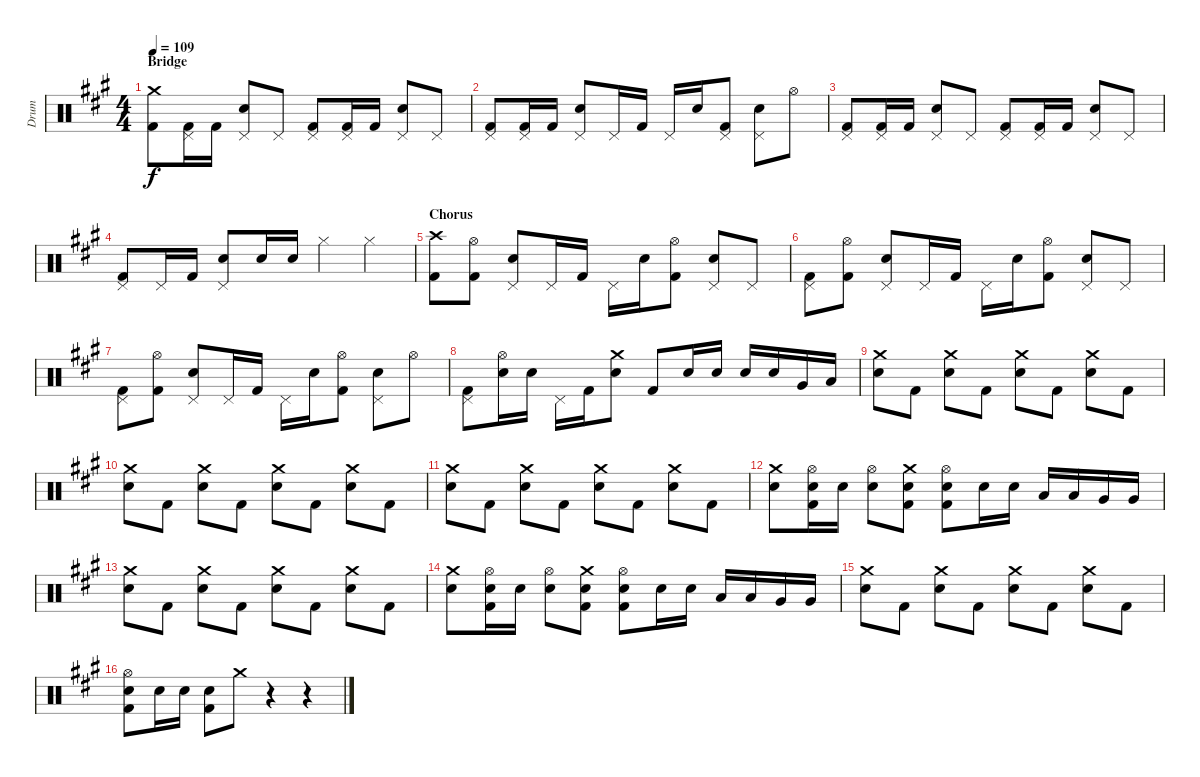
\track ("Drum" "Drum") {instrument percussion}
\staff {score}
\articulation defaults
\ts (4 4)
\section ("" "Bridge")
\tempo 109
\clef neutral
\ks f#minor
("Crash medium (hit)" "Kick (hit) 2").8{dy f} ("Pedal Hi-Hat (hit)" "Kick (hit) 2").16 "Kick (hit) 2".16 ("Pedal Hi-Hat (hit)" "Electric Snare (hit)").8 "Pedal Hi-Hat (hit)".8 ("Pedal Hi-Hat (hit)" "Kick (hit) 2").8 ("Pedal Hi-Hat (hit)" "Kick (hit) 2").16 "Kick (hit) 2".16 ("Pedal Hi-Hat (hit)" "Electric Snare (hit)").8 "Pedal Hi-Hat (hit)".8 |
("Pedal Hi-Hat (hit)" "Kick (hit) 2").8 ("Pedal Hi-Hat (hit)" "Kick (hit) 2").16 "Kick (hit) 2".16 ("Pedal Hi-Hat (hit)" "Electric Snare (hit)").8 "Pedal Hi-Hat (hit)".16 "Kick (hit) 2".16 "Pedal Hi-Hat (hit)".16 "Electric Snare (hit)".16 ("Pedal Hi-Hat (hit)" "Kick (hit) 2").8 ("Pedal Hi-Hat (hit)" "Electric Snare (hit)").8 "Hi-Hat (open)".8 |
("Pedal Hi-Hat (hit)" "Kick (hit) 2").8 ("Pedal Hi-Hat (hit)" "Kick (hit) 2").16 "Kick (hit) 2".16 ("Pedal Hi-Hat (hit)" "Electric Snare (hit)").8 "Pedal Hi-Hat (hit)".8 ("Pedal Hi-Hat (hit)" "Kick (hit) 2").8 ("Pedal Hi-Hat (hit)" "Kick (hit) 2").16 "Kick (hit) 2".16 ("Pedal Hi-Hat (hit)" "Electric Snare (hit)").8 "Pedal Hi-Hat (hit)".8 |
("Pedal Hi-Hat (hit)" "Kick (hit) 2").8 "Pedal Hi-Hat (hit)".16 "Kick (hit) 2".16 ("Pedal Hi-Hat (hit)" "Electric Snare (hit)").8 "Electric Snare (hit)".16 "Electric Snare (hit)".16 "Hi-Hat (closed)".4 "Hi-Hat (closed)".4 |
\section ("" "Chorus")
("Crash high (hit)" "Kick (hit) 2").8 ("Hi-Hat (open)" "Kick (hit) 2").8 ("Pedal Hi-Hat (hit)" "Electric Snare (hit)").8 "Pedal Hi-Hat (hit)".16 "Kick (hit) 2".16 "Pedal Hi-Hat (hit)".16 "Electric Snare (hit)".16 ("Hi-Hat (open)" "Kick (hit) 2").8 ("Pedal Hi-Hat (hit)" "Electric Snare (hit)").8 "Pedal Hi-Hat (hit)".8 |
("Pedal Hi-Hat (hit)" "Kick (hit) 2").8 ("Hi-Hat (open)" "Kick (hit) 2").8 ("Pedal Hi-Hat (hit)" "Electric Snare (hit)").8 "Pedal Hi-Hat (hit)".16 "Kick (hit) 2".16 "Pedal Hi-Hat (hit)".16 "Electric Snare (hit)".16 ("Hi-Hat (open)" "Kick (hit) 2").8 ("Pedal Hi-Hat (hit)" "Electric Snare (hit)").8 "Pedal Hi-Hat (hit)".8 |
("Pedal Hi-Hat (hit)" "Kick (hit) 2").8 ("Hi-Hat (open)" "Kick (hit) 2").8 ("Pedal Hi-Hat (hit)" "Electric Snare (hit)").8 "Pedal Hi-Hat (hit)".16 "Kick (hit) 2".16 "Pedal Hi-Hat (hit)".16 "Electric Snare (hit)".16 ("Hi-Hat (open)" "Kick (hit) 2").8 ("Pedal Hi-Hat (hit)" "Electric Snare (hit)").8 "Hi-Hat (open)".8 |
("Pedal Hi-Hat (hit)" "Kick (hit) 2").8 ("Hi-Hat (open)" "Electric Snare (hit)").16 "Electric Snare (hit)".16 "Pedal Hi-Hat (hit)".16 "Kick (hit) 2".16 ("Crash medium (hit)" "Electric Snare (hit)").8 "Kick (hit) 2".8 "Electric Snare (hit)".16 "Electric Snare (hit)".16 "Electric Snare (hit)".16 "Electric Snare (hit)".16 "Very Low Tom (hit)".16 "Low Floor Tom (hit)".16 |
("Crash medium (hit)" "Electric Snare (hit)").8 "Kick (hit) 2".8 ("Crash medium (hit)" "Electric Snare (hit)").8 "Kick (hit) 2".8 ("Crash medium (hit)" "Electric Snare (hit)").8 "Kick (hit) 2".8 ("Crash medium (hit)" "Electric Snare (hit)").8 "Kick (hit) 2".8 |
("Crash medium (hit)" "Electric Snare (hit)").8 "Kick (hit) 2".8 ("Crash medium (hit)" "Electric Snare (hit)").8 "Kick (hit) 2".8 ("Crash medium (hit)" "Electric Snare (hit)").8 "Kick (hit) 2".8 ("Crash medium (hit)" "Electric Snare (hit)").8 "Kick (hit) 2".8 |
("Crash medium (hit)" "Electric Snare (hit)").8 "Kick (hit) 2".8 ("Crash medium (hit)" "Electric Snare (hit)").8 "Kick (hit) 2".8 ("Crash medium (hit)" "Electric Snare (hit)").8 "Kick (hit) 2".8 ("Crash medium (hit)" "Electric Snare (hit)").8 "Kick (hit) 2".8 |
("Crash medium (hit)" "Electric Snare (hit)").8 ("Hi-Hat (open)" "Electric Snare (hit)" "Kick (hit) 2").16 "Electric Snare (hit)".16 ("Hi-Hat (open)" "Electric Snare (hit)").8 ("Crash medium (hit)" "Electric Snare (hit)" "Kick (hit) 2").8 ("Hi-Hat (open)" "Electric Snare (hit)" "Kick (hit) 2").8 "Electric Snare (hit)".16 "Electric Snare (hit)".16 "Low Tom (hit)".16 "Low Tom (hit)".16 "Very Low Tom (hit)".16 "Very Low Tom (hit)".16 |
("Crash medium (hit)" "Electric Snare (hit)").8 "Kick (hit) 2".8 ("Crash medium (hit)" "Electric Snare (hit)").8 "Kick (hit) 2".8 ("Crash medium (hit)" "Electric Snare (hit)").8 "Kick (hit) 2".8 ("Crash medium (hit)" "Electric Snare (hit)").8 "Kick (hit) 2".8 |
("Crash medium (hit)" "Electric Snare (hit)").8 ("Hi-Hat (open)" "Electric Snare (hit)" "Kick (hit) 2").16 "Electric Snare (hit)".16 ("Hi-Hat (open)" "Electric Snare (hit)").8 ("Crash medium (hit)" "Electric Snare (hit)" "Kick (hit) 2").8 ("Hi-Hat (open)" "Electric Snare (hit)" "Kick (hit) 2").8 "Electric Snare (hit)".16 "Electric Snare (hit)".16 "Low Tom (hit)".16 "Low Tom (hit)".16 "Very Low Tom (hit)".16 "Very Low Tom (hit)".16 |
("Crash medium (hit)" "Electric Snare (hit)").8 "Kick (hit) 2".8 ("Crash medium (hit)" "Electric Snare (hit)").8 "Kick (hit) 2".8 ("Crash medium (hit)" "Electric Snare (hit)").8 "Kick (hit) 2".8 ("Crash medium (hit)" "Electric Snare (hit)").8 "Kick (hit) 2".8 |
("Hi-Hat (open)" "Electric Snare (hit)" "Kick (hit) 2").8 "Electric Snare (hit)".16 "Electric Snare (hit)".16 ("Electric Snare (hit)" "Kick (hit) 2").8 "Crash medium (hit)".8 r.4 r.4
